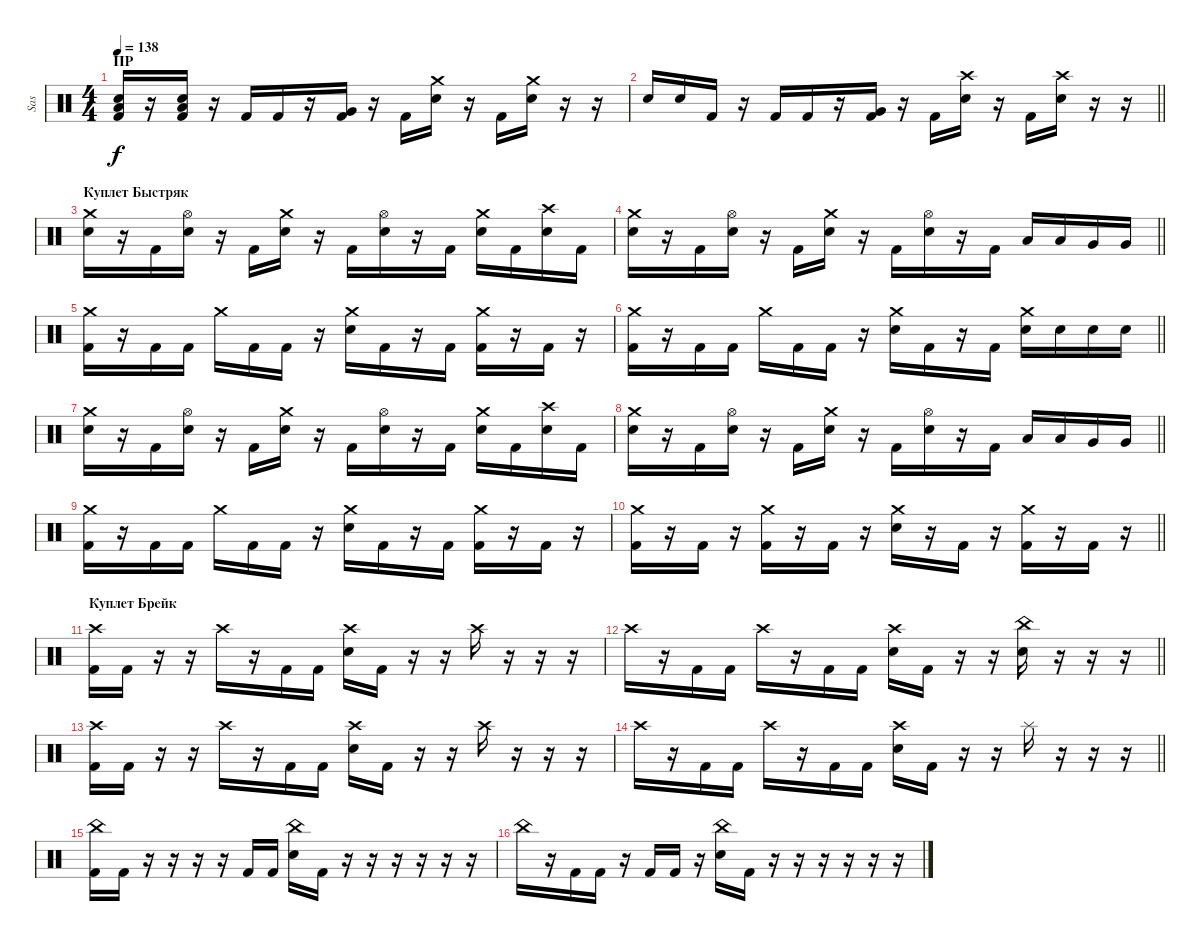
\track ("Sas" "Sas") {instrument percussion}
\staff {score}
\articulation defaults
\ts (4 4)
\section ("" "ПР")
\tempo 138
\clef neutral
\ks c
("Low Tom (hit)" "Snare (hit) 2" "Kick (hit) 2").16{dy f} r.16 ("Low Tom (hit)" "Snare (hit) 2" "Kick (hit) 2").16 r.16 "Kick (hit) 2".16 "Kick (hit) 2".16 r.16 ("Very Low Tom (hit)" "Kick (hit) 2").16 r.16 "Kick (hit) 2".16 ("Crash medium (hit)" "Snare (hit) 2").16 r.16 "Kick (hit) 2".16 ("Crash medium (hit)" "Snare (hit) 2").16 r.16 r.16 |
\barLineRight lightlight "Snare (hit) 2".16 "Snare (hit) 2".16 "Kick (hit) 2".16
r.16 "Kick (hit) 2".16 "Kick (hit) 2".16 r.16 ("Very Low Tom (hit)" "Kick (hit) 2").16 r.16 "Kick (hit) 2".16 ("Crash high (hit)" "Snare (hit) 2").16 r.16 "Kick (hit) 2".16 ("Crash high (hit)" "Snare (hit) 2").16 r.16 r.16 |
\section ("" "Куплет Быстряк")
("Crash medium (hit)" "Snare (hit) 2").16 r.16 "Kick (hit) 2".16 ("Hi-Hat (open)" "Snare (hit) 2").16 r.16 "Kick (hit) 2".16 ("Crash medium (hit)" "Snare (hit) 2").16 r.16 "Kick (hit) 2".16 ("Hi-Hat (open)" "Snare (hit) 2").16 r.16 "Kick (hit) 2".16 ("Crash medium (hit)" "Snare (hit) 2").16 "Kick (hit) 2".16 ("Crash high (hit)" "Snare (hit) 2").16 "Kick (hit) 2".16 |
\barLineRight lightlight
("Crash medium (hit)" "Snare (hit) 2").16 r.16 "Kick (hit) 2".16 ("Hi-Hat (open)" "Snare (hit) 2").16 r.16 "Kick (hit) 2".16 ("Crash medium (hit)" "Snare (hit) 2").16 r.16 "Kick (hit) 2".16 ("Hi-Hat (open)" "Snare (hit) 2").16 r.16 "Kick (hit) 2".16 "Low Tom (hit)".16 "Low Tom (hit)".16 "Very Low Tom (hit)".16 "Very Low Tom (hit)".16 |
("Crash medium (hit)" "Kick (hit) 2").16 r.16 "Kick (hit) 2".16 "Kick (hit) 2".16 "Crash medium (hit)".16 "Kick (hit) 2".16 "Kick (hit) 2".16 r.16 ("Crash medium (hit)" "Snare (hit) 2").16 "Kick (hit) 2".16 r.16 "Kick (hit) 2".16 ("Crash medium (hit)" "Kick (hit) 2").16 r.16 "Kick (hit) 2".16 r.16 |
\barLineRight lightlight
("Crash medium (hit)" "Kick (hit) 2").16 r.16 "Kick (hit) 2".16 "Kick (hit) 2".16 "Crash medium (hit)".16 "Kick (hit) 2".16 "Kick (hit) 2".16 r.16 ("Crash medium (hit)" "Snare (hit) 2").16 "Kick (hit) 2".16 r.16 "Kick (hit) 2".16 ("Crash medium (hit)" "Snare (hit) 2").16 "Snare (hit) 2".16 "Snare (hit) 2".16 "Snare (hit) 2".16 |
("Crash medium (hit)" "Snare (hit) 2").16 r.16 "Kick (hit) 2".16 ("Hi-Hat (open)" "Snare (hit) 2").16 r.16 "Kick (hit) 2".16 ("Crash medium (hit)" "Snare (hit) 2").16 r.16 "Kick (hit) 2".16 ("Hi-Hat (open)" "Snare (hit) 2").16 r.16 "Kick (hit) 2".16 ("Crash medium (hit)" "Snare (hit) 2").16 "Kick (hit) 2".16 ("Crash high (hit)" "Snare (hit) 2").16 "Kick (hit) 2".16 |
\barLineRight lightlight
("Crash medium (hit)" "Snare (hit) 2").16 r.16 "Kick (hit) 2".16 ("Hi-Hat (open)" "Snare (hit) 2").16 r.16 "Kick (hit) 2".16 ("Crash medium (hit)" "Snare (hit) 2").16 r.16 "Kick (hit) 2".16 ("Hi-Hat (open)" "Snare (hit) 2").16 r.16 "Kick (hit) 2".16 "Low Tom (hit)".16 "Low Tom (hit)".16 "Very Low Tom (hit)".16 "Very Low Tom (hit)".16 |
("Crash medium (hit)" "Kick (hit) 2").16 r.16 "Kick (hit) 2".16 "Kick (hit) 2".16 "Crash medium (hit)".16 "Kick (hit) 2".16 "Kick (hit) 2".16 r.16 ("Crash medium (hit)" "Snare (hit) 2").16 "Kick (hit) 2".16 r.16 "Kick (hit) 2".16 ("Crash medium (hit)" "Kick (hit) 2").16 r.16 "Kick (hit) 2".16 r.16 |
\barLineRight lightlight
("Crash medium (hit)" "Kick (hit) 2").16 r.16 "Kick (hit) 2".16 r.16 ("Crash medium (hit)" "Kick (hit) 2").16 r.16 "Kick (hit) 2".16 r.16 ("Crash medium (hit)" "Snare (hit) 2").16 r.16 "Kick (hit) 2".16 r.16 ("Crash medium (hit)" "Kick (hit) 2").16 r.16 "Kick (hit) 2".16 r.16 |
\section ("" "Куплет Брейк")
("Crash high (hit)" "Kick (hit) 2").16 "Kick (hit) 2".16 r.16 r.16 "Crash high (hit)".16 r.16 "Kick (hit) 2".16 "Kick (hit) 2".16 ("Crash high (hit)" "Snare (hit) 2").16 "Kick (hit) 2".16 r.16 r.16 "Crash high (hit)".16 r.16 r.16 r.16 |
\barLineRight lightlight "Crash high (hit)".16
r.16 "Kick (hit) 2".16 "Kick (hit) 2".16 "Crash high (hit)".16 r.16 "Kick (hit) 2".16 "Kick (hit) 2".16 ("Crash high (hit)" "Snare (hit) 2").16 "Kick (hit) 2".16 r.16 r.16 ("China (hit)" "Snare (hit) 2").16 r.16 r.16 r.16 |
("Crash high (hit)" "Kick (hit) 2").16 "Kick (hit) 2".16 r.16 r.16 "Crash high (hit)".16 r.16 "Kick (hit) 2".16 "Kick (hit) 2".16 ("Crash high (hit)" "Snare (hit) 2").16 "Kick (hit) 2".16 r.16 r.16 "Crash high (hit)".16 r.16 r.16 r.16 |
\barLineRight lightlight "Crash high (hit)".16
r.16 "Kick (hit) 2".16 "Kick (hit) 2".16 "Crash high (hit)".16 r.16 "Kick (hit) 2".16 "Kick (hit) 2".16 ("Crash high (hit)" "Snare (hit) 2").16 "Kick (hit) 2".16 r.16 r.16 "Splash (hit)".16 r.16 r.16 r.16 |
("China (hit)" "Kick (hit) 2").16 "Kick (hit) 2".16 r.16 r.16 r.16 r.16 "Kick (hit) 2".16 "Kick (hit) 2".16 ("China (hit)" "Snare (hit) 2").16 "Kick (hit) 2".16 r.16 r.16 r.16 r.16 r.16 r.16 |
"China (hit)".16 r.16 "Kick (hit) 2".16 "Kick (hit) 2".16 r.16 "Kick (hit) 2".16 "Kick (hit) 2".16 r.16 ("China (hit)" "Snare (hit) 2").16 "Kick (hit) 2".16 r.16 r.16 r.16 r.16 r.16 r.16
